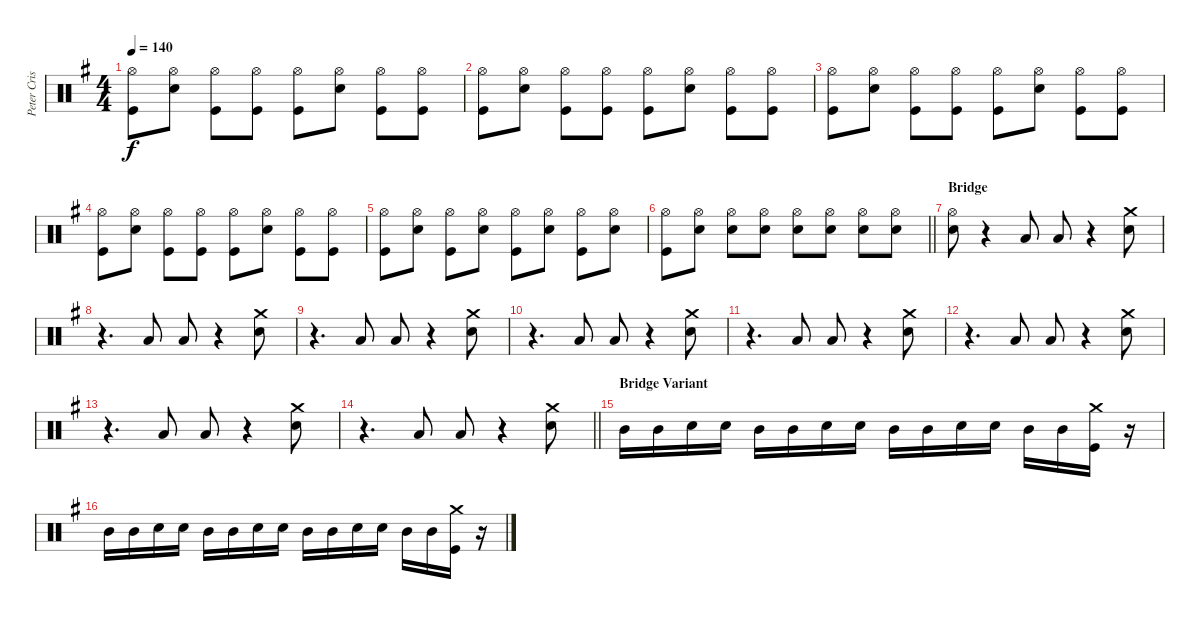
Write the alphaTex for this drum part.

\track ("Peter Criss" "Peter Cris") {instrument percussion}
\staff {score}
\articulation defaults
\ts (4 4)
\tempo 140
\clef neutral
\ks g
("Hi-Hat (open)" "Kick (hit)").8{dy f} ("Hi-Hat (open)" "Snare (hit) 2").8 ("Hi-Hat (open)" "Kick (hit)").8 ("Hi-Hat (open)" "Kick (hit)").8 ("Hi-Hat (open)" "Kick (hit)").8 ("Hi-Hat (open)" "Snare (hit) 2").8 ("Hi-Hat (open)" "Kick (hit)").8 ("Hi-Hat (open)" "Kick (hit)").8 |
("Hi-Hat (open)" "Kick (hit)").8 ("Hi-Hat (open)" "Snare (hit) 2").8 ("Hi-Hat (open)" "Kick (hit)").8 ("Hi-Hat (open)" "Kick (hit)").8 ("Hi-Hat (open)" "Kick (hit)").8 ("Hi-Hat (open)" "Snare (hit) 2").8 ("Hi-Hat (open)" "Kick (hit)").8 ("Hi-Hat (open)" "Kick (hit)").8 |
("Hi-Hat (open)" "Kick (hit)").8 ("Hi-Hat (open)" "Snare (hit) 2").8 ("Hi-Hat (open)" "Kick (hit)").8 ("Hi-Hat (open)" "Kick (hit)").8 ("Hi-Hat (open)" "Kick (hit)").8 ("Hi-Hat (open)" "Snare (hit) 2").8 ("Hi-Hat (open)" "Kick (hit)").8 ("Hi-Hat (open)" "Kick (hit)").8 |
("Hi-Hat (open)" "Kick (hit)").8 ("Hi-Hat (open)" "Snare (hit) 2").8 ("Hi-Hat (open)" "Kick (hit)").8 ("Hi-Hat (open)" "Kick (hit)").8 ("Hi-Hat (open)" "Kick (hit)").8 ("Hi-Hat (open)" "Snare (hit) 2").8 ("Hi-Hat (open)" "Kick (hit)").8 ("Hi-Hat (open)" "Kick (hit)").8 |
("Hi-Hat (open)" "Kick (hit)").8 ("Hi-Hat (open)" "Snare (hit) 2").8 ("Hi-Hat (open)" "Kick (hit)").8 ("Hi-Hat (open)" "Snare (hit) 2").8 ("Hi-Hat (open)" "Kick (hit)").8 ("Hi-Hat (open)" "Snare (hit) 2").8 ("Hi-Hat (open)" "Kick (hit)").8 ("Hi-Hat (open)" "Snare (hit) 2").8 |
\barLineRight lightlight
("Hi-Hat (open)" "Kick (hit)").8 ("Hi-Hat (open)" "Snare (hit) 2").8 ("Hi-Hat (open)" "Snare (hit) 2").8 ("Hi-Hat (open)" "Snare (hit) 2").8 ("Hi-Hat (open)" "Snare (hit) 2").8 ("Hi-Hat (open)" "Snare (hit) 2").8 ("Hi-Hat (open)" "Snare (hit) 2").8 ("Hi-Hat (open)" "Snare (hit) 2").8 |
\section ("" "Bridge")
("Hi-Hat (open)" "Snare (hit) 2").8 r.4 "Low Tom (hit)".8 "Low Tom (hit)".8 r.4 ("Crash medium (hit)" "Snare (hit) 2").8 |
r.4{d} "Low Tom (hit)".8 "Low Tom (hit)".8 r.4 ("Crash medium (hit)" "Snare (hit) 2").8 |
r.4{d} "Low Tom (hit)".8 "Low Tom (hit)".8 r.4 ("Crash medium (hit)" "Snare (hit) 2").8 |
r.4{d} "Low Tom (hit)".8 "Low Tom (hit)".8 r.4 ("Crash medium (hit)" "Snare (hit) 2").8 |
r.4{d} "Low Tom (hit)".8 "Low Tom (hit)".8 r.4 ("Crash medium (hit)" "Snare (hit) 2").8 |
r.4{d} "Low Tom (hit)".8 "Low Tom (hit)".8 r.4 ("Crash medium (hit)" "Snare (hit) 2").8 |
r.4{d} "Low Tom (hit)".8 "Low Tom (hit)".8 r.4 ("Crash medium (hit)" "Snare (hit) 2").8 |
\barLineRight lightlight
r.4{d} "Low Tom (hit)".8 "Low Tom (hit)".8 r.4 ("Crash medium (hit)" "Snare (hit) 2").8 |
\section ("" "Bridge Variant")
"Mid Tom (hit)".16 "Mid Tom (hit)".16 "Snare (hit) 2".16 "Snare (hit) 2".16 "Mid Tom (hit)".16 "Mid Tom (hit)".16 "Snare (hit) 2".16 "Snare (hit) 2".16 "Mid Tom (hit)".16 "Mid Tom (hit)".16 "Snare (hit) 2".16 "Snare (hit) 2".16 "Mid Tom (hit)".16 "Mid Tom (hit)".16 ("Crash medium (hit)" "Kick (hit)").16 r.16 |
"Mid Tom (hit)".16 "Mid Tom (hit)".16 "Snare (hit) 2".16 "Snare (hit) 2".16 "Mid Tom (hit)".16 "Mid Tom (hit)".16 "Snare (hit) 2".16 "Snare (hit) 2".16 "Mid Tom (hit)".16 "Mid Tom (hit)".16 "Snare (hit) 2".16 "Snare (hit) 2".16 "Mid Tom (hit)".16 "Mid Tom (hit)".16 ("Crash medium (hit)" "Kick (hit)").16 r.16
